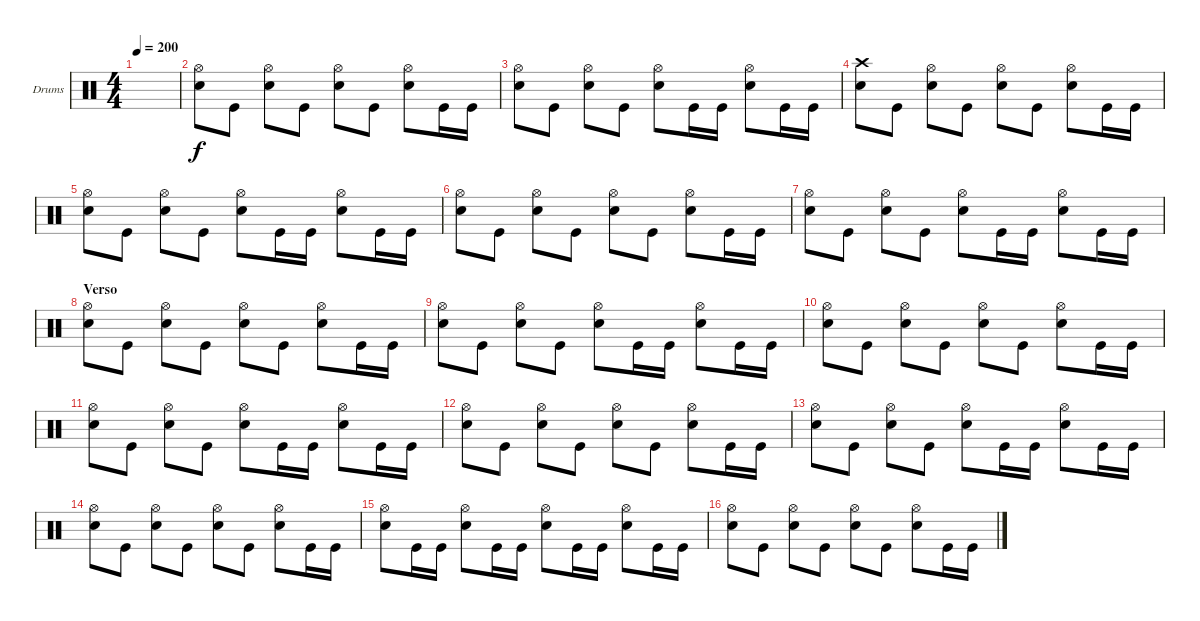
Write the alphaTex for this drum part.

\defaultSystemsLayout 4
\bracketExtendMode groupsimilarinstruments
\firstSystemTrackNameOrientation horizontal
\otherSystemsTrackNameOrientation horizontal
\track ("Drumkit" "Drums") {instrument percussion}
\staff {score}
\articulation defaults
\ts (4 4)
\tempo 200
\clef neutral
\ks c
|
("Hi-Hat (open)" "Snare (hit) 2").8{dy f} "Kick (hit)".8 ("Snare (hit) 2" "Hi-Hat (open)").8 "Kick (hit)".8 ("Snare (hit) 2" "Hi-Hat (open)").8 "Kick (hit)".8 ("Snare (hit) 2" "Hi-Hat (open)").8 "Kick (hit)".16 "Kick (hit)".16 |
("Snare (hit) 2" "Hi-Hat (open)").8 "Kick (hit)".8 ("Hi-Hat (open)" "Snare (hit) 2").8 "Kick (hit)".8 ("Snare (hit) 2" "Hi-Hat (open)").8 "Kick (hit)".16 "Kick (hit)".16 ("Snare (hit) 2" "Hi-Hat (open)").8 "Kick (hit)".16 "Kick (hit)".16 |
("Snare (hit) 2" "Crash high (hit)").8 "Kick (hit)".8 ("Snare (hit) 2" "Hi-Hat (open)").8 "Kick (hit)".8 ("Snare (hit) 2" "Hi-Hat (open)").8 "Kick (hit)".8 ("Snare (hit) 2" "Hi-Hat (open)").8 "Kick (hit)".16 "Kick (hit)".16 |
("Snare (hit) 2" "Hi-Hat (open)").8 "Kick (hit)".8 ("Hi-Hat (open)" "Snare (hit) 2").8 "Kick (hit)".8 ("Snare (hit) 2" "Hi-Hat (open)").8 "Kick (hit)".16 "Kick (hit)".16 ("Snare (hit) 2" "Hi-Hat (open)").8 "Kick (hit)".16 "Kick (hit)".16 |
("Hi-Hat (open)" "Snare (hit) 2").8 "Kick (hit)".8 ("Snare (hit) 2" "Hi-Hat (open)").8 "Kick (hit)".8 ("Snare (hit) 2" "Hi-Hat (open)").8 "Kick (hit)".8 ("Snare (hit) 2" "Hi-Hat (open)").8 "Kick (hit)".16 "Kick (hit)".16 |
("Snare (hit) 2" "Hi-Hat (open)").8 "Kick (hit)".8 ("Hi-Hat (open)" "Snare (hit) 2").8 "Kick (hit)".8 ("Snare (hit) 2" "Hi-Hat (open)").8 "Kick (hit)".16 "Kick (hit)".16 ("Snare (hit) 2" "Hi-Hat (open)").8 "Kick (hit)".16 "Kick (hit)".16 |
\section ("" "Verso")
("Hi-Hat (open)" "Snare (hit) 2").8 "Kick (hit)".8 ("Snare (hit) 2" "Hi-Hat (open)").8 "Kick (hit)".8 ("Snare (hit) 2" "Hi-Hat (open)").8 "Kick (hit)".8 ("Snare (hit) 2" "Hi-Hat (open)").8 "Kick (hit)".16 "Kick (hit)".16 |
("Snare (hit) 2" "Hi-Hat (open)").8 "Kick (hit)".8 ("Hi-Hat (open)" "Snare (hit) 2").8 "Kick (hit)".8 ("Snare (hit) 2" "Hi-Hat (open)").8 "Kick (hit)".16 "Kick (hit)".16 ("Snare (hit) 2" "Hi-Hat (open)").8 "Kick (hit)".16 "Kick (hit)".16 |
("Hi-Hat (open)" "Snare (hit) 2").8 "Kick (hit)".8 ("Snare (hit) 2" "Hi-Hat (open)").8 "Kick (hit)".8 ("Snare (hit) 2" "Hi-Hat (open)").8 "Kick (hit)".8 ("Snare (hit) 2" "Hi-Hat (open)").8 "Kick (hit)".16 "Kick (hit)".16 |
("Snare (hit) 2" "Hi-Hat (open)").8 "Kick (hit)".8 ("Hi-Hat (open)" "Snare (hit) 2").8 "Kick (hit)".8 ("Snare (hit) 2" "Hi-Hat (open)").8 "Kick (hit)".16 "Kick (hit)".16 ("Snare (hit) 2" "Hi-Hat (open)").8 "Kick (hit)".16 "Kick (hit)".16 |
("Hi-Hat (open)" "Snare (hit) 2").8 "Kick (hit)".8 ("Snare (hit) 2" "Hi-Hat (open)").8 "Kick (hit)".8 ("Snare (hit) 2" "Hi-Hat (open)").8 "Kick (hit)".8 ("Snare (hit) 2" "Hi-Hat (open)").8 "Kick (hit)".16 "Kick (hit)".16 |
("Snare (hit) 2" "Hi-Hat (open)").8 "Kick (hit)".8 ("Hi-Hat (open)" "Snare (hit) 2").8 "Kick (hit)".8 ("Snare (hit) 2" "Hi-Hat (open)").8 "Kick (hit)".16 "Kick (hit)".16 ("Snare (hit) 2" "Hi-Hat (open)").8 "Kick (hit)".16 "Kick (hit)".16 |
("Hi-Hat (open)" "Snare (hit) 2").8 "Kick (hit)".8 ("Snare (hit) 2" "Hi-Hat (open)").8 "Kick (hit)".8 ("Snare (hit) 2" "Hi-Hat (open)").8 "Kick (hit)".8 ("Snare (hit) 2" "Hi-Hat (open)").8 "Kick (hit)".16 "Kick (hit)".16 |
("Snare (hit) 2" "Hi-Hat (open)").8 "Kick (hit)".16 "Kick (hit)".16 ("Snare (hit) 2" "Hi-Hat (open)").8 "Kick (hit)".16 "Kick (hit)".16 ("Snare (hit) 2" "Hi-Hat (open)").8 "Kick (hit)".16 "Kick (hit)".16 ("Snare (hit) 2" "Hi-Hat (open)").8 "Kick (hit)".16 "Kick (hit)".16 |
("Hi-Hat (open)" "Snare (hit) 2").8 "Kick (hit)".8 ("Snare (hit) 2" "Hi-Hat (open)").8 "Kick (hit)".8 ("Snare (hit) 2" "Hi-Hat (open)").8 "Kick (hit)".8 ("Snare (hit) 2" "Hi-Hat (open)").8 "Kick (hit)".16 "Kick (hit)".16
